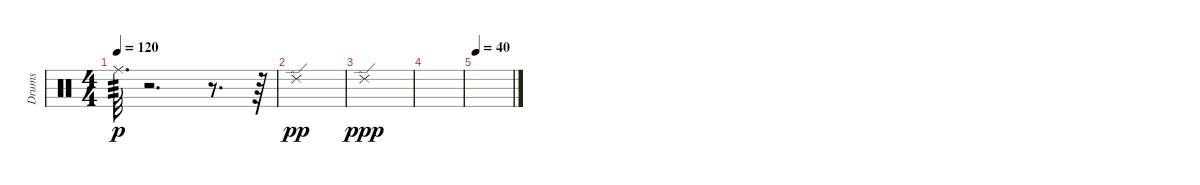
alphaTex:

\track ("Drums" "Drums") {instrument percussion}
\staff {score}
\articulation defaults
\ts (4 4)
\tempo 120
\clef neutral
\ks c "Ride (middle)".32{d tp 3 dy p}
r.2{d} r.8{d} r.64 |
"Ride (edge) 2".1{dy pp} |
"Ride (edge) 2".1{dy ppp} |
|
\tempo 40
